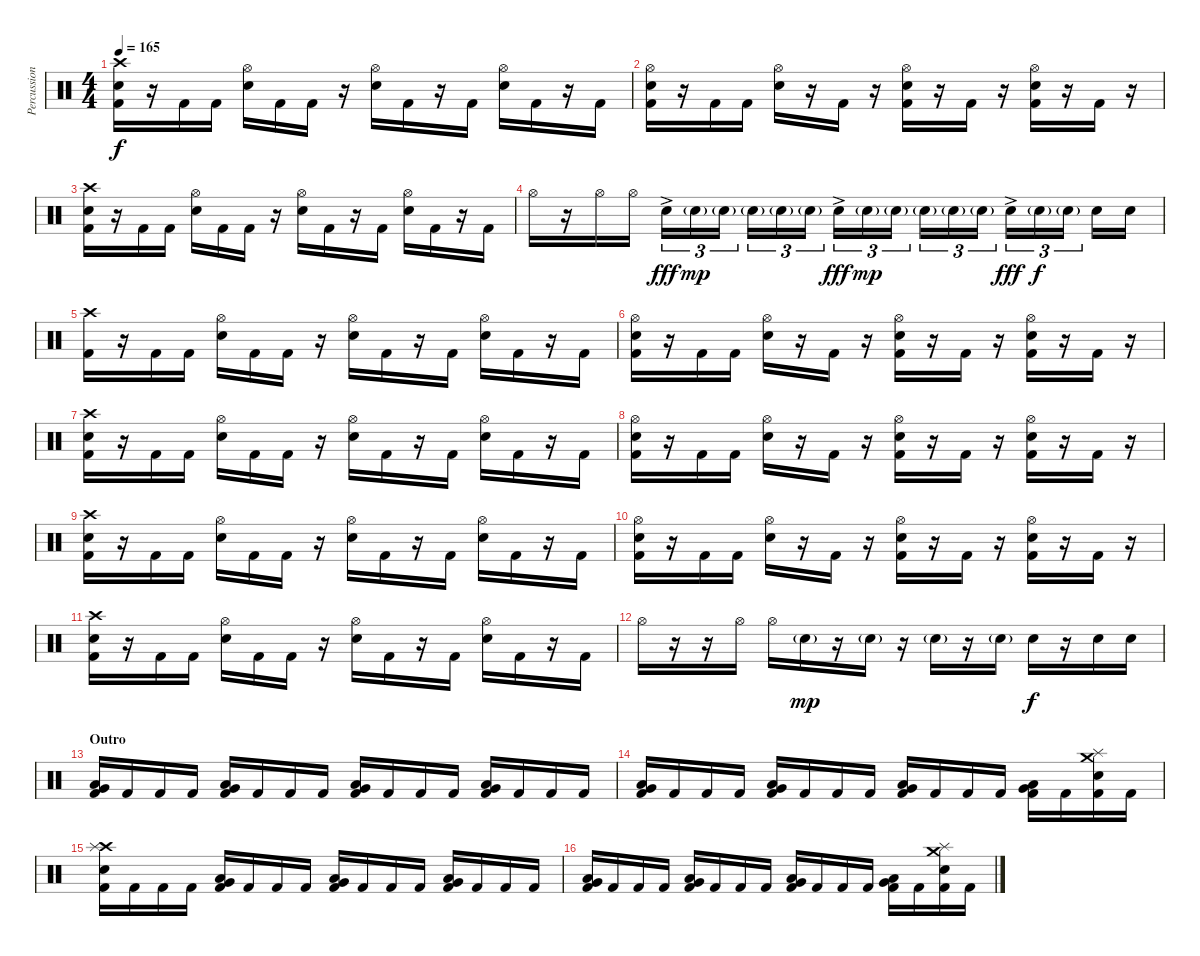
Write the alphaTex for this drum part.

\track ("Percussion" "Percussion") {instrument percussion}
\staff {score}
\articulation defaults
\ts (4 4)
\tempo 165
\clef neutral
\ks c
("Crash high (hit)" "Electric Snare (hit)" "Kick (hit) 2").16{dy f} r.16 "Kick (hit) 2".16 "Kick (hit) 2".16 ("Hi-Hat (open)" "Electric Snare (hit)").16 "Kick (hit) 2".16 "Kick (hit) 2".16 r.16 ("Hi-Hat (open)" "Electric Snare (hit)").16 "Kick (hit) 2".16 r.16 "Kick (hit) 2".16 ("Hi-Hat (open)" "Electric Snare (hit)").16 "Kick (hit) 2".16 r.16 "Kick (hit) 2".16 |
("Hi-Hat (open)" "Electric Snare (hit)" "Kick (hit) 2").16 r.16 "Kick (hit) 2".16 "Kick (hit) 2".16 ("Hi-Hat (open)" "Electric Snare (hit)").16 r.16 "Kick (hit) 2".16 r.16 ("Hi-Hat (open)" "Electric Snare (hit)" "Kick (hit) 2").16 r.16 "Kick (hit) 2".16 r.16 ("Hi-Hat (open)" "Electric Snare (hit)" "Kick (hit) 2").16 r.16 "Kick (hit) 2".16 r.16 |
("Crash high (hit)" "Electric Snare (hit)" "Kick (hit) 2").16 r.16 "Kick (hit) 2".16 "Kick (hit) 2".16 ("Hi-Hat (open)" "Electric Snare (hit)").16 "Kick (hit) 2".16 "Kick (hit) 2".16 r.16 ("Hi-Hat (open)" "Electric Snare (hit)").16 "Kick (hit) 2".16 r.16 "Kick (hit) 2".16 ("Hi-Hat (open)" "Electric Snare (hit)").16 "Kick (hit) 2".16 r.16 "Kick (hit) 2".16 |
"Hi-Hat (open)".16 r.16 "Hi-Hat (open)".16 "Hi-Hat (open)".16 "Electric Snare (hit)"{ac}.16{tu (3 2) dy fff} "Electric Snare (hit)"{g}.16{tu (3 2) dy mp} "Electric Snare (hit)"{g}.16{tu (3 2)} "Electric Snare (hit)"{g}.16{tu (3 2)} "Electric Snare (hit)"{g}.16{tu (3 2)} "Electric Snare (hit)"{g}.16{tu (3 2)} "Electric Snare (hit)"{ac}.16{tu (3 2) dy fff} "Electric Snare (hit)"{g}.16{tu (3 2) dy mp} "Electric Snare (hit)"{g}.16{tu (3 2)} "Electric Snare (hit)"{g}.16{tu (3 2)} "Electric Snare (hit)"{g}.16{tu (3 2)} "Electric Snare (hit)"{g}.16{tu (3 2)} "Electric Snare (hit)"{ac}.16{tu (3 2) dy fff} "Electric Snare (hit)"{g}.16{tu (3 2) dy f} "Electric Snare (hit)"{g}.16{tu (3 2)} "Electric Snare (hit)".16 "Electric Snare (hit)".16 |
("Crash high (hit)" "Kick (hit) 2").16 r.16 "Kick (hit) 2".16 "Kick (hit) 2".16 ("Hi-Hat (open)" "Electric Snare (hit)").16 "Kick (hit) 2".16 "Kick (hit) 2".16 r.16 ("Hi-Hat (open)" "Electric Snare (hit)").16 "Kick (hit) 2".16 r.16 "Kick (hit) 2".16 ("Hi-Hat (open)" "Electric Snare (hit)").16 "Kick (hit) 2".16 r.16 "Kick (hit) 2".16 |
("Hi-Hat (open)" "Electric Snare (hit)" "Kick (hit) 2").16 r.16 "Kick (hit) 2".16 "Kick (hit) 2".16 ("Hi-Hat (open)" "Electric Snare (hit)").16 r.16 "Kick (hit) 2".16 r.16 ("Hi-Hat (open)" "Electric Snare (hit)" "Kick (hit) 2").16 r.16 "Kick (hit) 2".16 r.16 ("Hi-Hat (open)" "Electric Snare (hit)" "Kick (hit) 2").16 r.16 "Kick (hit) 2".16 r.16 |
("Crash high (hit)" "Electric Snare (hit)" "Kick (hit) 2").16 r.16 "Kick (hit) 2".16 "Kick (hit) 2".16 ("Hi-Hat (open)" "Electric Snare (hit)").16 "Kick (hit) 2".16 "Kick (hit) 2".16 r.16 ("Hi-Hat (open)" "Electric Snare (hit)").16 "Kick (hit) 2".16 r.16 "Kick (hit) 2".16 ("Hi-Hat (open)" "Electric Snare (hit)").16 "Kick (hit) 2".16 r.16 "Kick (hit) 2".16 |
("Hi-Hat (open)" "Electric Snare (hit)" "Kick (hit) 2").16 r.16 "Kick (hit) 2".16 "Kick (hit) 2".16 ("Hi-Hat (open)" "Electric Snare (hit)").16 r.16 "Kick (hit) 2".16 r.16 ("Hi-Hat (open)" "Electric Snare (hit)" "Kick (hit) 2").16 r.16 "Kick (hit) 2".16 r.16 ("Hi-Hat (open)" "Electric Snare (hit)" "Kick (hit) 2").16 r.16 "Kick (hit) 2".16 r.16 |
("Crash high (hit)" "Electric Snare (hit)" "Kick (hit) 2").16 r.16 "Kick (hit) 2".16 "Kick (hit) 2".16 ("Hi-Hat (open)" "Electric Snare (hit)").16 "Kick (hit) 2".16 "Kick (hit) 2".16 r.16 ("Hi-Hat (open)" "Electric Snare (hit)").16 "Kick (hit) 2".16 r.16 "Kick (hit) 2".16 ("Hi-Hat (open)" "Electric Snare (hit)").16 "Kick (hit) 2".16 r.16 "Kick (hit) 2".16 |
("Hi-Hat (open)" "Electric Snare (hit)" "Kick (hit) 2").16 r.16 "Kick (hit) 2".16 "Kick (hit) 2".16 ("Hi-Hat (open)" "Electric Snare (hit)").16 r.16 "Kick (hit) 2".16 r.16 ("Hi-Hat (open)" "Electric Snare (hit)" "Kick (hit) 2").16 r.16 "Kick (hit) 2".16 r.16 ("Hi-Hat (open)" "Electric Snare (hit)" "Kick (hit) 2").16 r.16 "Kick (hit) 2".16 r.16 |
("Crash high (hit)" "Electric Snare (hit)" "Kick (hit) 2").16 r.16 "Kick (hit) 2".16 "Kick (hit) 2".16 ("Hi-Hat (open)" "Electric Snare (hit)").16 "Kick (hit) 2".16 "Kick (hit) 2".16 r.16 ("Hi-Hat (open)" "Electric Snare (hit)").16 "Kick (hit) 2".16 r.16 "Kick (hit) 2".16 ("Hi-Hat (open)" "Electric Snare (hit)").16 "Kick (hit) 2".16 r.16 "Kick (hit) 2".16 |
"Hi-Hat (open)".16 r.16 r.16 "Hi-Hat (open)".16 "Hi-Hat (open)".16 "Electric Snare (hit)"{g}.16{dy mp} r.16 "Electric Snare (hit)"{g}.16 r.16 "Electric Snare (hit)"{g}.16 r.16 "Electric Snare (hit)"{g}.16 "Electric Snare (hit)".16{dy f} r.16 "Electric Snare (hit)".16 "Electric Snare (hit)".16 |
\section ("" "Outro")
("Very Low Tom (hit)" "Low Floor Tom (hit)" "Kick (hit) 2").16 "Kick (hit) 2".16 "Kick (hit) 2".16 "Kick (hit) 2".16 ("Very Low Tom (hit)" "Low Floor Tom (hit)" "Kick (hit) 2").16 "Kick (hit) 2".16 "Kick (hit) 2".16 "Kick (hit) 2".16 ("Very Low Tom (hit)" "Low Floor Tom (hit)" "Kick (hit) 2").16 "Kick (hit) 2".16 "Kick (hit) 2".16 "Kick (hit) 2".16 ("Very Low Tom (hit)" "Low Floor Tom (hit)" "Kick (hit) 2").16 "Kick (hit) 2".16 "Kick (hit) 2".16 "Kick (hit) 2".16 |
("Very Low Tom (hit)" "Low Floor Tom (hit)" "Kick (hit) 2").16 "Kick (hit) 2".16 "Kick (hit) 2".16 "Kick (hit) 2".16 ("Very Low Tom (hit)" "Low Floor Tom (hit)" "Kick (hit) 2").16 "Kick (hit) 2".16 "Kick (hit) 2".16 "Kick (hit) 2".16 ("Very Low Tom (hit)" "Low Floor Tom (hit)" "Kick (hit) 2").16 "Kick (hit) 2".16 "Kick (hit) 2".16 "Kick (hit) 2".16 ("Very Low Tom (hit)" "Low Floor Tom (hit)" "Kick (hit) 2").16 "Kick (hit) 2".16 ("Crash medium (hit)" "Splash (hit)" "Electric Snare (hit)" "Kick (hit) 2").16 "Kick (hit) 2".16 |
("Crash high (hit)" "Splash (hit)" "Electric Snare (hit)" "Kick (hit) 2").16 "Kick (hit) 2".16 "Kick (hit) 2".16 "Kick (hit) 2".16 ("Very Low Tom (hit)" "Low Floor Tom (hit)" "Kick (hit) 2").16 "Kick (hit) 2".16 "Kick (hit) 2".16 "Kick (hit) 2".16 ("Very Low Tom (hit)" "Low Floor Tom (hit)" "Kick (hit) 2").16 "Kick (hit) 2".16 "Kick (hit) 2".16 "Kick (hit) 2".16 ("Very Low Tom (hit)" "Low Floor Tom (hit)" "Kick (hit) 2").16 "Kick (hit) 2".16 "Kick (hit) 2".16 "Kick (hit) 2".16 |
("Very Low Tom (hit)" "Low Floor Tom (hit)" "Kick (hit) 2").16 "Kick (hit) 2".16 "Kick (hit) 2".16 "Kick (hit) 2".16 ("Very Low Tom (hit)" "Low Floor Tom (hit)" "Kick (hit) 2").16 "Kick (hit) 2".16 "Kick (hit) 2".16 "Kick (hit) 2".16 ("Very Low Tom (hit)" "Low Floor Tom (hit)" "Kick (hit) 2").16 "Kick (hit) 2".16 "Kick (hit) 2".16 "Kick (hit) 2".16 ("Very Low Tom (hit)" "Low Floor Tom (hit)" "Kick (hit) 2").16 "Kick (hit) 2".16 ("Crash medium (hit)" "Splash (hit)" "Electric Snare (hit)" "Kick (hit) 2").16 "Kick (hit) 2".16
